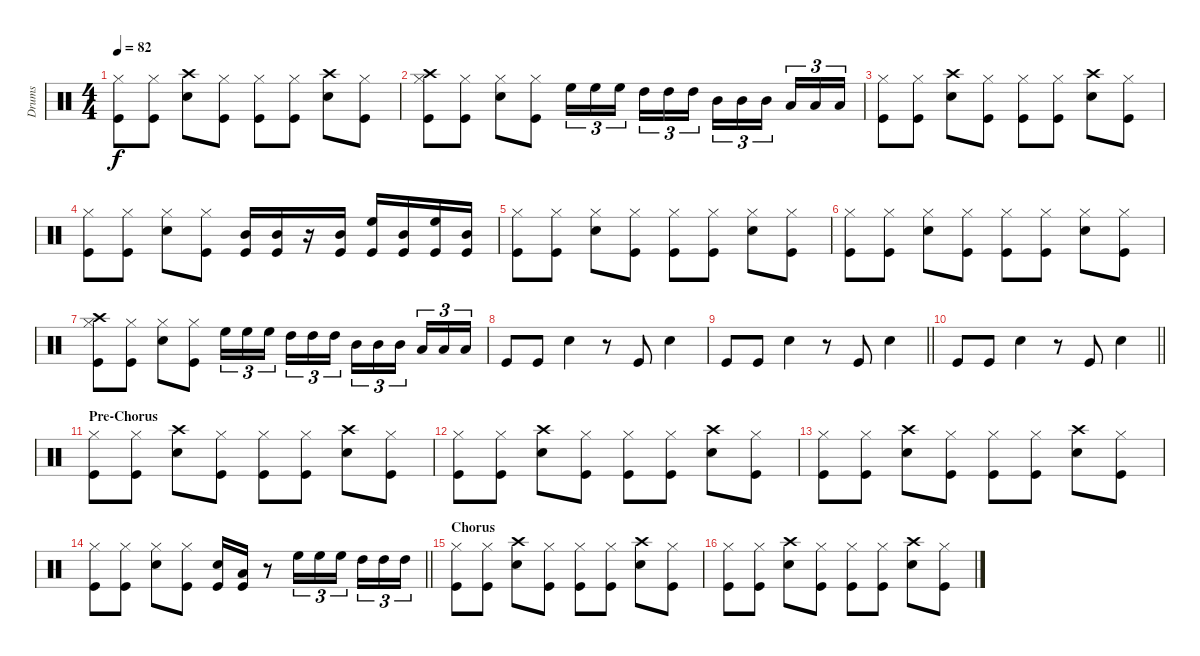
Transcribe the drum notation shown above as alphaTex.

\track ("Drums" "Drums") {instrument percussion}
\staff {score}
\articulation defaults
\ts (4 4)
\tempo 82
\clef neutral
\ks c
("Hi-Hat (closed)" "Kick (hit)").8{dy f} ("Hi-Hat (closed)" "Kick (hit)").8 ("Crash high (hit)" "Snare (hit) 2").8 ("Kick (hit)" "Hi-Hat (closed)").8 ("Kick (hit)" "Hi-Hat (closed)").8 ("Kick (hit)" "Hi-Hat (closed)").8 ("Snare (hit) 2" "Crash high (hit)").8 ("Kick (hit)" "Hi-Hat (closed)").8 |
("Crash high (hit)" "Hi-Hat (closed)" "Kick (hit)").8 ("Hi-Hat (closed)" "Kick (hit)").8 ("Hi-Hat (closed)" "Snare (hit) 2").8 ("Kick (hit)" "Hi-Hat (closed)").8 "High Floor Tom (hit)".16{tu (3 2)} "High Floor Tom (hit)".16{tu (3 2)} "High Floor Tom (hit)".16{tu (3 2) beam splitsecondary} "High Tom (hit)".16{tu (3 2)} "High Tom (hit)".16{tu (3 2)} "High Tom (hit)".16{tu (3 2)} "Mid Tom (hit)".16{tu (3 2)} "Mid Tom (hit)".16{tu (3 2)} "Mid Tom (hit)".16{tu (3 2) beam splitsecondary} "Low Tom (hit)".16{tu (3 2)} "Low Tom (hit)".16{tu (3 2)} "Low Tom (hit)".16{tu (3 2)} |
("Hi-Hat (closed)" "Kick (hit)").8 ("Hi-Hat (closed)" "Kick (hit)").8 ("Crash high (hit)" "Snare (hit) 2").8 ("Kick (hit)" "Hi-Hat (closed)").8 ("Kick (hit)" "Hi-Hat (closed)").8 ("Kick (hit)" "Hi-Hat (closed)").8 ("Snare (hit) 2" "Crash high (hit)").8 ("Kick (hit)" "Hi-Hat (closed)").8 |
("Hi-Hat (closed)" "Kick (hit)").8 ("Hi-Hat (closed)" "Kick (hit)").8 ("Hi-Hat (closed)" "Snare (hit) 2").8 ("Kick (hit)" "Hi-Hat (closed)").8 ("Kick (hit)" "Mid Tom (hit)").16 ("Kick (hit)" "Mid Tom (hit)").16 r.16 ("Kick (hit)" "Mid Tom (hit)").16 ("High Floor Tom (hit)" "Kick (hit)").16 ("Kick (hit)" "Mid Tom (hit)").16 ("High Floor Tom (hit)" "Kick (hit)").16 ("Mid Tom (hit)" "Kick (hit)").16 |
("Hi-Hat (closed)" "Kick (hit)").8 ("Hi-Hat (closed)" "Kick (hit)").8 ("Hi-Hat (closed)" "Snare (hit) 2").8 ("Kick (hit)" "Hi-Hat (closed)").8 ("Kick (hit)" "Hi-Hat (closed)").8 ("Kick (hit)" "Hi-Hat (closed)").8 ("Snare (hit) 2" "Hi-Hat (closed)").8 ("Kick (hit)" "Hi-Hat (closed)").8 |
("Hi-Hat (closed)" "Kick (hit)").8 ("Hi-Hat (closed)" "Kick (hit)").8 ("Hi-Hat (closed)" "Snare (hit) 2").8 ("Kick (hit)" "Hi-Hat (closed)").8 ("Kick (hit)" "Hi-Hat (closed)").8 ("Kick (hit)" "Hi-Hat (closed)").8 ("Snare (hit) 2" "Hi-Hat (closed)").8 ("Kick (hit)" "Hi-Hat (closed)").8 |
("Crash high (hit)" "Hi-Hat (closed)" "Kick (hit)").8 ("Hi-Hat (closed)" "Kick (hit)").8 ("Hi-Hat (closed)" "Snare (hit) 2").8 ("Kick (hit)" "Hi-Hat (closed)").8 "High Floor Tom (hit)".16{tu (3 2)} "High Floor Tom (hit)".16{tu (3 2)} "High Floor Tom (hit)".16{tu (3 2) beam splitsecondary} "High Tom (hit)".16{tu (3 2)} "High Tom (hit)".16{tu (3 2)} "High Tom (hit)".16{tu (3 2)} "Mid Tom (hit)".16{tu (3 2)} "Mid Tom (hit)".16{tu (3 2)} "Mid Tom (hit)".16{tu (3 2) beam splitsecondary} "Low Tom (hit)".16{tu (3 2)} "Low Tom (hit)".16{tu (3 2)} "Low Tom (hit)".16{tu (3 2)} |
"Kick (hit)".8 "Kick (hit)".8 "Snare (hit) 2".4 r.8 "Kick (hit)".8 "Snare (hit) 2".4 |
\barLineRight lightlight "Kick (hit)".8 "Kick (hit)".8 "Snare (hit) 2".4
r.8 "Kick (hit)".8 "Snare (hit) 2".4 |
\barLineRight lightlight "Kick (hit)".8 "Kick (hit)".8 "Snare (hit) 2".4
r.8 "Kick (hit)".8 "Snare (hit) 2".4 |
\section ("" "Pre-Chorus")
("Hi-Hat (closed)" "Kick (hit)").8 ("Hi-Hat (closed)" "Kick (hit)").8 ("Crash high (hit)" "Snare (hit) 2").8 ("Kick (hit)" "Hi-Hat (closed)").8 ("Kick (hit)" "Hi-Hat (closed)").8 ("Kick (hit)" "Hi-Hat (closed)").8 ("Snare (hit) 2" "Crash high (hit)").8 ("Kick (hit)" "Hi-Hat (closed)").8 |
("Hi-Hat (closed)" "Kick (hit)").8 ("Hi-Hat (closed)" "Kick (hit)").8 ("Crash high (hit)" "Snare (hit) 2").8 ("Kick (hit)" "Hi-Hat (closed)").8 ("Kick (hit)" "Hi-Hat (closed)").8 ("Kick (hit)" "Hi-Hat (closed)").8 ("Snare (hit) 2" "Crash high (hit)").8 ("Kick (hit)" "Hi-Hat (closed)").8 |
("Hi-Hat (closed)" "Kick (hit)").8 ("Hi-Hat (closed)" "Kick (hit)").8 ("Crash high (hit)" "Snare (hit) 2").8 ("Kick (hit)" "Hi-Hat (closed)").8 ("Kick (hit)" "Hi-Hat (closed)").8 ("Kick (hit)" "Hi-Hat (closed)").8 ("Snare (hit) 2" "Crash high (hit)").8 ("Kick (hit)" "Hi-Hat (closed)").8 |
\barLineRight lightlight
("Hi-Hat (closed)" "Kick (hit)").8 ("Hi-Hat (closed)" "Kick (hit)").8 ("Hi-Hat (closed)" "Snare (hit) 2").8 ("Kick (hit)" "Hi-Hat (closed)").8 ("Snare (hit) 2" "Kick (hit)").16 ("Low Tom (hit)" "Kick (hit)").16 r.8 "High Floor Tom (hit)".16{tu (3 2)} "High Floor Tom (hit)".16{tu (3 2)} "High Floor Tom (hit)".16{tu (3 2) beam splitsecondary} "High Tom (hit)".16{tu (3 2)} "High Tom (hit)".16{tu (3 2)} "High Tom (hit)".16{tu (3 2)} |
\section ("" "Chorus")
("Hi-Hat (closed)" "Kick (hit)").8 ("Hi-Hat (closed)" "Kick (hit)").8 ("Crash high (hit)" "Snare (hit) 2").8 ("Kick (hit)" "Hi-Hat (closed)").8 ("Kick (hit)" "Hi-Hat (closed)").8 ("Kick (hit)" "Hi-Hat (closed)").8 ("Snare (hit) 2" "Crash high (hit)").8 ("Kick (hit)" "Hi-Hat (closed)").8 |
("Hi-Hat (closed)" "Kick (hit)").8 ("Hi-Hat (closed)" "Kick (hit)").8 ("Crash high (hit)" "Snare (hit) 2").8 ("Kick (hit)" "Hi-Hat (closed)").8 ("Kick (hit)" "Hi-Hat (closed)").8 ("Kick (hit)" "Hi-Hat (closed)").8 ("Snare (hit) 2" "Crash high (hit)").8 ("Kick (hit)" "Hi-Hat (closed)").8
